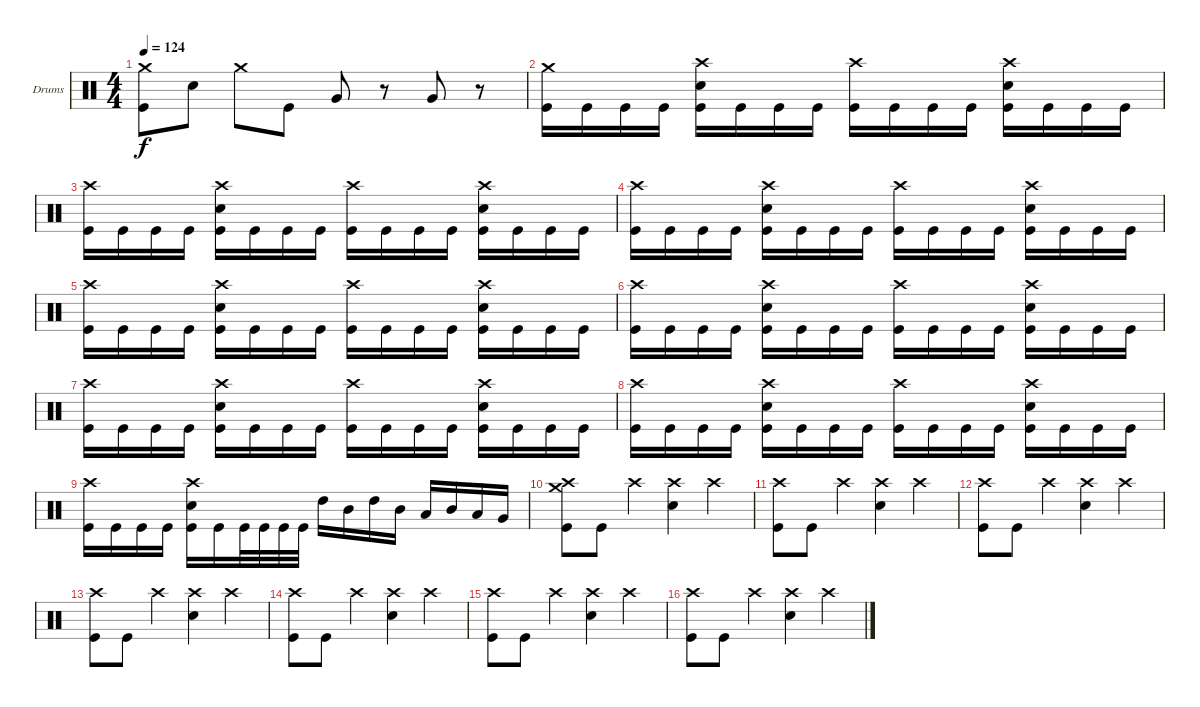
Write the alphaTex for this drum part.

\defaultSystemsLayout 4
\bracketExtendMode groupsimilarinstruments
\firstSystemTrackNameOrientation horizontal
\otherSystemsTrackNameOrientation horizontal
\track ("Drumkit" "Drums") {instrument percussion}
\staff {score}
\articulation defaults
\ts (4 4)
\tempo 124
\clef neutral
\ks c
("Crash medium (hit)" "Kick (hit)").8{dy f} "Snare (hit) 2".8 "Crash medium (hit)".8 "Kick (hit)".8 "Very Low Tom (hit)".8 r.8 "Very Low Tom (hit)".8 r.8 |
("Crash medium (hit)" "Kick (hit)").16 "Kick (hit)".16 "Kick (hit)".16 "Kick (hit)".16 ("Crash high (hit)" "Snare (hit) 2" "Kick (hit)").16 "Kick (hit)".16 "Kick (hit)".16 "Kick (hit)".16 ("Crash high (hit)" "Kick (hit)").16 "Kick (hit)".16 "Kick (hit)".16 "Kick (hit)".16 ("Crash high (hit)" "Snare (hit) 2" "Kick (hit)").16 "Kick (hit)".16 "Kick (hit)".16 "Kick (hit)".16 |
("Crash high (hit)" "Kick (hit)").16 "Kick (hit)".16 "Kick (hit)".16 "Kick (hit)".16 ("Crash high (hit)" "Snare (hit) 2" "Kick (hit)").16 "Kick (hit)".16 "Kick (hit)".16 "Kick (hit)".16 ("Crash high (hit)" "Kick (hit)").16 "Kick (hit)".16 "Kick (hit)".16 "Kick (hit)".16 ("Crash high (hit)" "Snare (hit) 2" "Kick (hit)").16 "Kick (hit)".16 "Kick (hit)".16 "Kick (hit)".16 |
("Crash high (hit)" "Kick (hit)").16 "Kick (hit)".16 "Kick (hit)".16 "Kick (hit)".16 ("Crash high (hit)" "Snare (hit) 2" "Kick (hit)").16 "Kick (hit)".16 "Kick (hit)".16 "Kick (hit)".16 ("Crash high (hit)" "Kick (hit)").16 "Kick (hit)".16 "Kick (hit)".16 "Kick (hit)".16 ("Crash high (hit)" "Snare (hit) 2" "Kick (hit)").16 "Kick (hit)".16 "Kick (hit)".16 "Kick (hit)".16 |
("Crash high (hit)" "Kick (hit)").16 "Kick (hit)".16 "Kick (hit)".16 "Kick (hit)".16 ("Crash high (hit)" "Snare (hit) 2" "Kick (hit)").16 "Kick (hit)".16 "Kick (hit)".16 "Kick (hit)".16 ("Crash high (hit)" "Kick (hit)").16 "Kick (hit)".16 "Kick (hit)".16 "Kick (hit)".16 ("Crash high (hit)" "Snare (hit) 2" "Kick (hit)").16 "Kick (hit)".16 "Kick (hit)".16 "Kick (hit)".16 |
("Crash high (hit)" "Kick (hit)").16 "Kick (hit)".16 "Kick (hit)".16 "Kick (hit)".16 ("Crash high (hit)" "Snare (hit) 2" "Kick (hit)").16 "Kick (hit)".16 "Kick (hit)".16 "Kick (hit)".16 ("Crash high (hit)" "Kick (hit)").16 "Kick (hit)".16 "Kick (hit)".16 "Kick (hit)".16 ("Crash high (hit)" "Snare (hit) 2" "Kick (hit)").16 "Kick (hit)".16 "Kick (hit)".16 "Kick (hit)".16 |
("Crash high (hit)" "Kick (hit)").16 "Kick (hit)".16 "Kick (hit)".16 "Kick (hit)".16 ("Crash high (hit)" "Snare (hit) 2" "Kick (hit)").16 "Kick (hit)".16 "Kick (hit)".16 "Kick (hit)".16 ("Crash high (hit)" "Kick (hit)").16 "Kick (hit)".16 "Kick (hit)".16 "Kick (hit)".16 ("Crash high (hit)" "Snare (hit) 2" "Kick (hit)").16 "Kick (hit)".16 "Kick (hit)".16 "Kick (hit)".16 |
("Crash high (hit)" "Kick (hit)").16 "Kick (hit)".16 "Kick (hit)".16 "Kick (hit)".16 ("Crash high (hit)" "Snare (hit) 2" "Kick (hit)").16 "Kick (hit)".16 "Kick (hit)".16 "Kick (hit)".16 ("Crash high (hit)" "Kick (hit)").16 "Kick (hit)".16 "Kick (hit)".16 "Kick (hit)".16 ("Crash high (hit)" "Snare (hit) 2" "Kick (hit)").16 "Kick (hit)".16 "Kick (hit)".16 "Kick (hit)".16 |
("Crash high (hit)" "Kick (hit)").16 "Kick (hit)".16 "Kick (hit)".16 "Kick (hit)".16 ("Crash high (hit)" "Snare (hit) 2" "Kick (hit)").16 "Kick (hit)".16 "Kick (hit)".32 "Kick (hit)".32 "Kick (hit)".32 "Kick (hit)".32 "High Tom (hit)".16 "Mid Tom (hit)".16 "High Tom (hit)".16 "Mid Tom (hit)".16 "Low Tom (hit)".16 "Mid Tom (hit)".16 "Low Tom (hit)".16 "Very Low Tom (hit)".16 |
("Crash high (hit)" "Crash medium (hit)" "Kick (hit)").8 "Kick (hit)".8 "Crash high (hit)".4 ("Crash high (hit)" "Snare (hit) 2").4 "Crash high (hit)".4 |
("Crash high (hit)" "Kick (hit)").8 "Kick (hit)".8 "Crash high (hit)".4 ("Crash high (hit)" "Snare (hit) 2").4 "Crash high (hit)".4 |
("Crash high (hit)" "Kick (hit)").8 "Kick (hit)".8 "Crash high (hit)".4 ("Crash high (hit)" "Snare (hit) 2").4 "Crash high (hit)".4 |
("Crash high (hit)" "Kick (hit)").8 "Kick (hit)".8 "Crash high (hit)".4 ("Crash high (hit)" "Snare (hit) 2").4 "Crash high (hit)".4 |
("Crash high (hit)" "Kick (hit)").8 "Kick (hit)".8 "Crash high (hit)".4 ("Crash high (hit)" "Snare (hit) 2").4 "Crash high (hit)".4 |
("Crash high (hit)" "Kick (hit)").8 "Kick (hit)".8 "Crash high (hit)".4 ("Crash high (hit)" "Snare (hit) 2").4 "Crash high (hit)".4 |
("Crash high (hit)" "Kick (hit)").8 "Kick (hit)".8 "Crash high (hit)".4 ("Crash high (hit)" "Snare (hit) 2").4 "Crash high (hit)".4
